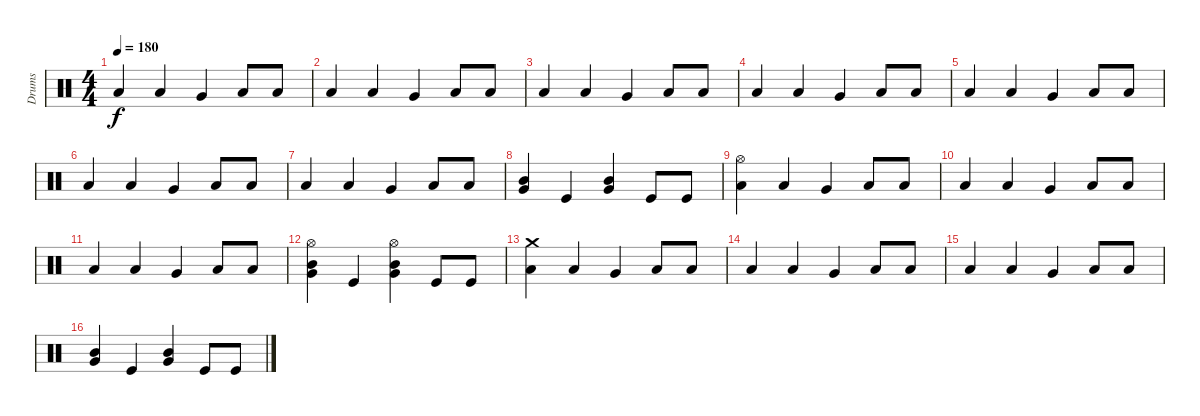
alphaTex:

\track ("Drums" "Drums") {instrument percussion}
\staff {score}
\articulation defaults
\ts (4 4)
\tempo 180
\clef neutral
\ks c "Low Floor Tom (hit)".4{dy f} "Low Floor Tom (hit)".4 "Very Low Tom (hit)".4 "Low Floor Tom (hit)".8 "Low Floor Tom (hit)".8
|
"Low Floor Tom (hit)".4 "Low Floor Tom (hit)".4 "Very Low Tom (hit)".4 "Low Floor Tom (hit)".8 "Low Floor Tom (hit)".8 |
"Low Floor Tom (hit)".4 "Low Floor Tom (hit)".4 "Very Low Tom (hit)".4 "Low Floor Tom (hit)".8 "Low Floor Tom (hit)".8 |
"Low Floor Tom (hit)".4 "Low Floor Tom (hit)".4 "Very Low Tom (hit)".4 "Low Floor Tom (hit)".8 "Low Floor Tom (hit)".8 |
"Low Floor Tom (hit)".4 "Low Floor Tom (hit)".4 "Very Low Tom (hit)".4 "Low Floor Tom (hit)".8 "Low Floor Tom (hit)".8 |
"Low Floor Tom (hit)".4 "Low Floor Tom (hit)".4 "Very Low Tom (hit)".4 "Low Floor Tom (hit)".8 "Low Floor Tom (hit)".8 |
"Low Floor Tom (hit)".4 "Low Floor Tom (hit)".4 "Very Low Tom (hit)".4 "Low Floor Tom (hit)".8 "Low Floor Tom (hit)".8 |
("Mid Tom (hit)" "Very Low Tom (hit)").4 "Kick (hit)".4 ("Mid Tom (hit)" "Very Low Tom (hit)").4 "Kick (hit)".8 "Kick (hit)".8 |
("Hi-Hat (open)" "Low Floor Tom (hit)").4 "Low Floor Tom (hit)".4 "Very Low Tom (hit)".4 "Low Floor Tom (hit)".8 "Low Floor Tom (hit)".8 |
"Low Floor Tom (hit)".4 "Low Floor Tom (hit)".4 "Very Low Tom (hit)".4 "Low Floor Tom (hit)".8 "Low Floor Tom (hit)".8 |
"Low Floor Tom (hit)".4 "Low Floor Tom (hit)".4 "Very Low Tom (hit)".4 "Low Floor Tom (hit)".8 "Low Floor Tom (hit)".8 |
("Hi-Hat (open)" "Mid Tom (hit)" "Very Low Tom (hit)").4 "Kick (hit)".4 ("Hi-Hat (open)" "Mid Tom (hit)" "Very Low Tom (hit)").4 "Kick (hit)".8 "Kick (hit)".8 |
("Crash medium (hit)" "Low Floor Tom (hit)").4 "Low Floor Tom (hit)".4 "Very Low Tom (hit)".4 "Low Floor Tom (hit)".8 "Low Floor Tom (hit)".8 |
"Low Floor Tom (hit)".4 "Low Floor Tom (hit)".4 "Very Low Tom (hit)".4 "Low Floor Tom (hit)".8 "Low Floor Tom (hit)".8 |
"Low Floor Tom (hit)".4 "Low Floor Tom (hit)".4 "Very Low Tom (hit)".4 "Low Floor Tom (hit)".8 "Low Floor Tom (hit)".8 |
("Mid Tom (hit)" "Very Low Tom (hit)").4 "Kick (hit)".4 ("Mid Tom (hit)" "Very Low Tom (hit)").4 "Kick (hit)".8 "Kick (hit)".8
